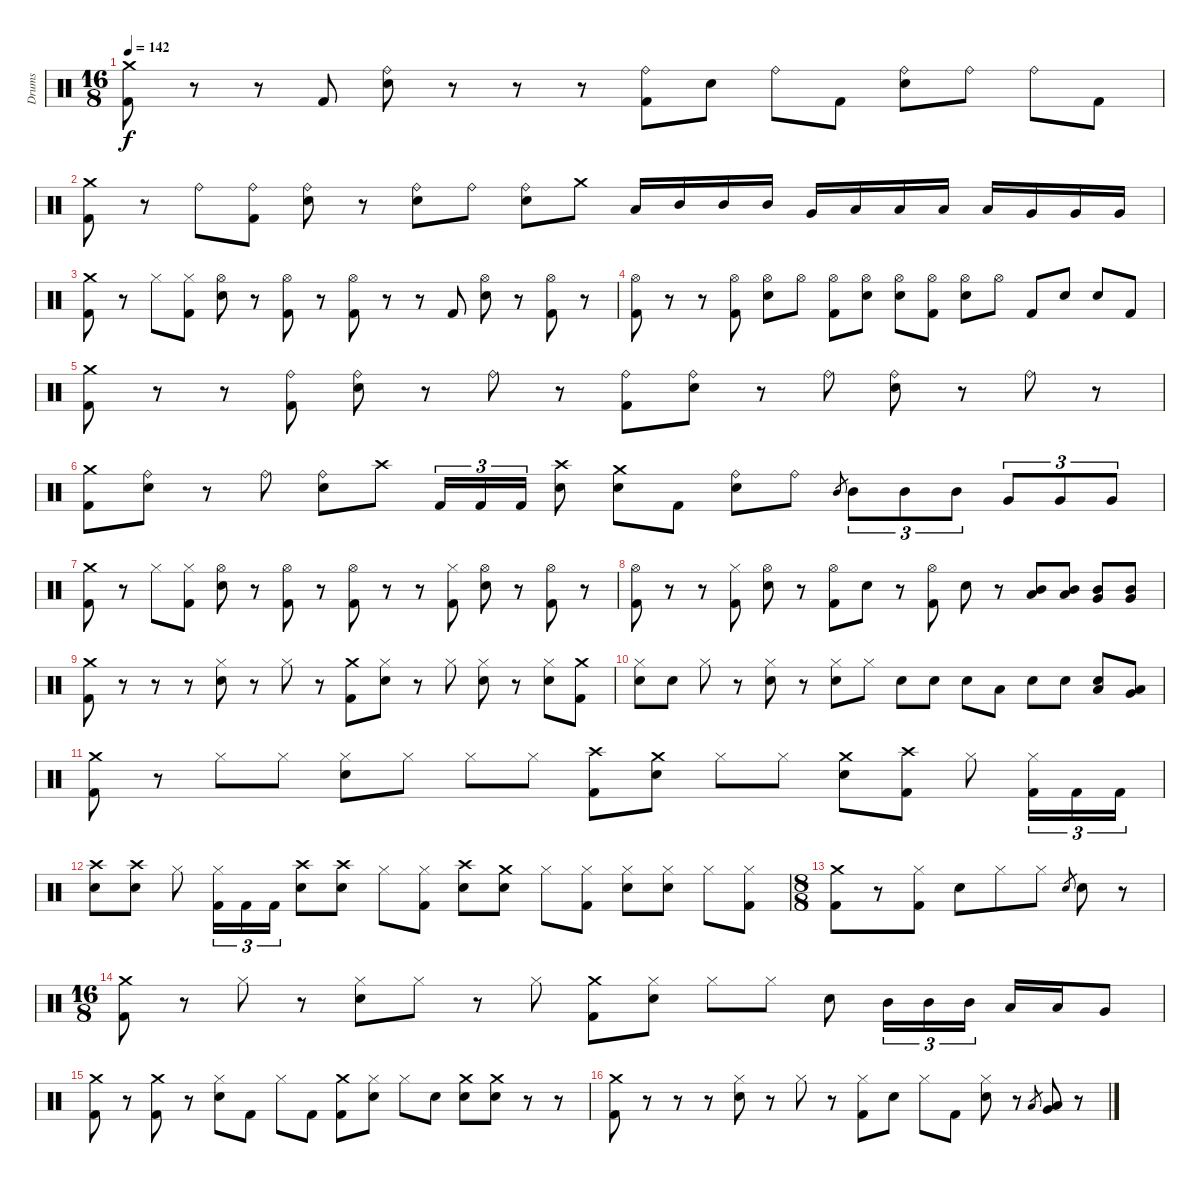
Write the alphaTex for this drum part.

\track ("Drums" "Drums") {instrument percussion}
\staff {score}
\articulation defaults
\ts (16 8)
\tempo 142
\clef neutral
\ks c
("Crash medium (hit)" "Kick (hit) 2").8{dy f} r.8 r.8 "Kick (hit) 2".8 ("Ride (bell)" "Electric Snare (hit)").8 r.8 r.8 r.8 ("Ride (bell)" "Kick (hit) 2").8 "Electric Snare (hit)".8 "Ride (bell)".8 "Kick (hit) 2".8 ("Ride (bell)" "Electric Snare (hit)").8 "Ride (bell)".8 "Ride (bell)".8 "Kick (hit) 2".8 |
("Crash medium (hit)" "Kick (hit) 2").8 r.8 "Ride (bell)".8 ("Ride (bell)" "Kick (hit) 2").8 ("Ride (bell)" "Electric Snare (hit)").8 r.8 ("Ride (bell)" "Electric Snare (hit)").8 "Ride (bell)".8 ("Ride (bell)" "Electric Snare (hit)").8 "Crash medium (hit)".8 "Low Tom (hit)".16 "Mid Tom (hit)".16 "Mid Tom (hit)".16 "Mid Tom (hit)".16 "Very Low Tom (hit)".16 "Low Tom (hit)".16 "Low Tom (hit)".16 "Low Tom (hit)".16 "Low Floor Tom (hit)".16 "Very Low Tom (hit)".16 "Very Low Tom (hit)".16 "Very Low Tom (hit)".16 |
("Crash medium (hit)" "Kick (hit) 2").8 r.8 "Hi-Hat (closed)".8 ("Hi-Hat (closed)" "Kick (hit) 2").8 ("Hi-Hat (open)" "Electric Snare (hit)").8 r.8 ("Hi-Hat (open)" "Kick (hit) 2").8 r.8 ("Hi-Hat (open)" "Kick (hit) 2").8 r.8 r.8 "Kick (hit) 2".8 ("Hi-Hat (open)" "Electric Snare (hit)").8 r.8 ("Hi-Hat (open)" "Kick (hit) 2").8 r.8 |
("Hi-Hat (open)" "Kick (hit) 2").8 r.8 r.8 ("Hi-Hat (open)" "Kick (hit) 2").8 ("Hi-Hat (open)" "Electric Snare (hit)").8 "Hi-Hat (open)".8 ("Hi-Hat (open)" "Kick (hit) 2").8 ("Hi-Hat (open)" "Electric Snare (hit)").8 ("Hi-Hat (open)" "Electric Snare (hit)").8 ("Hi-Hat (open)" "Kick (hit) 2").8 ("Hi-Hat (open)" "Electric Snare (hit)").8 "Hi-Hat (open)".8 "Kick (hit) 2".8 "Electric Snare (hit)".8 "Electric Snare (hit)".8 "Kick (hit) 2".8 |
("Crash medium (hit)" "Kick (hit) 2").8 r.8 r.8 ("Ride (bell)" "Kick (hit) 2").8 ("Ride (bell)" "Electric Snare (hit)").8 r.8 "Ride (bell)".8 r.8 ("Ride (bell)" "Kick (hit) 2").8 ("Ride (bell)" "Electric Snare (hit)").8 r.8 "Ride (bell)".8 ("Ride (bell)" "Electric Snare (hit)").8 r.8 "Ride (bell)".8 r.8 |
("Crash medium (hit)" "Kick (hit) 2").8 ("Ride (bell)" "Electric Snare (hit)").8 r.8 "Ride (bell)".8 ("Ride (bell)" "Electric Snare (hit)").8 "Crash high (hit)".8 "Kick (hit) 2".16{tu (3 2)} "Kick (hit) 2".16{tu (3 2)} "Kick (hit) 2".16{tu (3 2)} ("Crash high (hit)" "Electric Snare (hit)").8 ("Crash medium (hit)" "Electric Snare (hit)").8 "Kick (hit) 2".8 ("Ride (bell)" "Electric Snare (hit)").8 "Ride (bell)".8 "Mid Tom (hit)".8{gr} "Mid Tom (hit)".8{tu (3 2)} "Mid Tom (hit)".8{tu (3 2)} "Mid Tom (hit)".8{tu (3 2)} "Very Low Tom (hit)".8{tu (3 2)} "Very Low Tom (hit)".8{tu (3 2)} "Very Low Tom (hit)".8{tu (3 2)} |
("Crash medium (hit)" "Kick (hit) 2").8 r.8 "Hi-Hat (closed)".8 ("Hi-Hat (closed)" "Kick (hit) 2").8 ("Hi-Hat (open)" "Electric Snare (hit)").8 r.8 ("Hi-Hat (open)" "Kick (hit) 2").8 r.8 ("Hi-Hat (open)" "Kick (hit) 2").8 r.8 r.8 ("Hi-Hat (closed)" "Kick (hit) 2").8 ("Hi-Hat (open)" "Electric Snare (hit)").8 r.8 ("Hi-Hat (open)" "Kick (hit) 2").8 r.8 |
("Hi-Hat (open)" "Kick (hit) 2").8 r.8 r.8 ("Hi-Hat (closed)" "Kick (hit) 2").8 ("Hi-Hat (open)" "Electric Snare (hit)").8 r.8 ("Hi-Hat (open)" "Kick (hit) 2").8 "Electric Snare (hit)".8 r.8 ("Hi-Hat (open)" "Kick (hit) 2").8 "Electric Snare (hit)".8 r.8 ("Mid Tom (hit)" "Low Tom (hit)").8 ("Mid Tom (hit)" "Low Tom (hit)").8 ("Mid Tom (hit)" "Very Low Tom (hit)").8 ("Mid Tom (hit)" "Very Low Tom (hit)").8 |
("Crash medium (hit)" "Kick (hit) 2").8 r.8 r.8 r.8 ("Hi-Hat (closed)" "Electric Snare (hit)").8 r.8 "Hi-Hat (closed)".8 r.8 ("Crash medium (hit)" "Kick (hit) 2").8 ("Hi-Hat (closed)" "Electric Snare (hit)").8 r.8 "Hi-Hat (closed)".8 ("Hi-Hat (closed)" "Electric Snare (hit)").8 r.8 ("Hi-Hat (closed)" "Electric Snare (hit)").8 ("Crash medium (hit)" "Kick (hit) 2").8 |
("Hi-Hat (closed)" "Electric Snare (hit)").8 "Electric Snare (hit)".8 "Hi-Hat (closed)".8 r.8 ("Hi-Hat (closed)" "Electric Snare (hit)").8 r.8 ("Hi-Hat (closed)" "Electric Snare (hit)").8 "Hi-Hat (closed)".8 "Electric Snare (hit)".8 "Electric Snare (hit)".8 "Electric Snare (hit)".8 "Low Tom (hit)".8 "Electric Snare (hit)".8 "Electric Snare (hit)".8 ("Electric Snare (hit)" "Low Tom (hit)").8 ("Low Tom (hit)" "Very Low Tom (hit)").8 |
("Crash medium (hit)" "Kick (hit) 2").8 r.8 "Hi-Hat (closed)".8 "Hi-Hat (closed)".8 ("Hi-Hat (closed)" "Electric Snare (hit)").8 "Hi-Hat (closed)".8 "Hi-Hat (closed)".8 "Hi-Hat (closed)".8 ("Crash high (hit)" "Kick (hit) 2").8 ("Crash medium (hit)" "Electric Snare (hit)").8 "Hi-Hat (closed)".8 "Hi-Hat (closed)".8 ("Crash medium (hit)" "Electric Snare (hit)").8 ("Crash high (hit)" "Kick (hit) 2").8 "Hi-Hat (closed)".8 ("Hi-Hat (closed)" "Kick (hit) 2").16{tu (3 2)} "Kick (hit) 2".16{tu (3 2)} "Kick (hit) 2".16{tu (3 2)} |
("Crash high (hit)" "Electric Snare (hit)").8 ("Crash high (hit)" "Electric Snare (hit)").8 "Hi-Hat (closed)".8 ("Hi-Hat (closed)" "Kick (hit) 2").16{tu (3 2)} "Kick (hit) 2".16{tu (3 2)} "Kick (hit) 2".16{tu (3 2)} ("Crash high (hit)" "Electric Snare (hit)").8 ("Crash high (hit)" "Electric Snare (hit)").8 "Hi-Hat (closed)".8 ("Hi-Hat (closed)" "Kick (hit) 2").8 ("Crash high (hit)" "Electric Snare (hit)").8 ("Crash medium (hit)" "Electric Snare (hit)").8 "Hi-Hat (closed)".8 ("Hi-Hat (closed)" "Kick (hit) 2").8 ("Hi-Hat (closed)" "Electric Snare (hit)").8 ("Hi-Hat (closed)" "Electric Snare (hit)").8 "Hi-Hat (closed)".8 ("Hi-Hat (closed)" "Kick (hit) 2").8 |
\ts (8 8)
("Crash medium (hit)" "Kick (hit) 2").8 r.8 ("Hi-Hat (closed)" "Kick (hit) 2").8 "Electric Snare (hit)".8 "Hi-Hat (closed)".8 "Hi-Hat (closed)".8 "Electric Snare (hit)".8{gr} "Electric Snare (hit)".8 r.8 |
\ts (16 8)
("Crash medium (hit)" "Kick (hit) 2").8 r.8 "Hi-Hat (closed)".8 r.8 ("Hi-Hat (closed)" "Electric Snare (hit)").8 "Hi-Hat (closed)".8 r.8 "Hi-Hat (closed)".8 ("Crash medium (hit)" "Kick (hit) 2").8 ("Hi-Hat (closed)" "Electric Snare (hit)").8 "Hi-Hat (closed)".8 "Hi-Hat (closed)".8 "Electric Snare (hit)".8 "Mid Tom (hit)".16{tu (3 2)} "Mid Tom (hit)".16{tu (3 2)} "Mid Tom (hit)".16{tu (3 2)} "Low Tom (hit)".16 "Low Tom (hit)".16 "Very Low Tom (hit)".8 |
("Crash medium (hit)" "Kick (hit) 2").8 r.8 ("Crash medium (hit)" "Kick (hit) 2").8 r.8 ("Hi-Hat (closed)" "Electric Snare (hit)").8 "Kick (hit) 2".8 "Hi-Hat (closed)".8 "Kick (hit) 2".8 ("Crash medium (hit)" "Kick (hit) 2").8 ("Hi-Hat (closed)" "Electric Snare (hit)").8 "Hi-Hat (closed)".8 "Snare (hit)".8 ("Crash medium (hit)" "Electric Snare (hit)").8 ("Crash medium (hit)" "Electric Snare (hit)").8 r.8 r.8 |
("Crash medium (hit)" "Kick (hit) 2").8 r.8 r.8 r.8 ("Hi-Hat (closed)" "Electric Snare (hit)").8 r.8 "Hi-Hat (closed)".8 r.8 ("Hi-Hat (closed)" "Kick (hit) 2").8 "Electric Snare (hit)".8 "Hi-Hat (closed)".8 "Kick (hit) 2".8 ("Hi-Hat (closed)" "Electric Snare (hit)").8 r.8 "Low Tom (hit)".8{gr} ("Low Tom (hit)" "Very Low Tom (hit)").8 r.8
